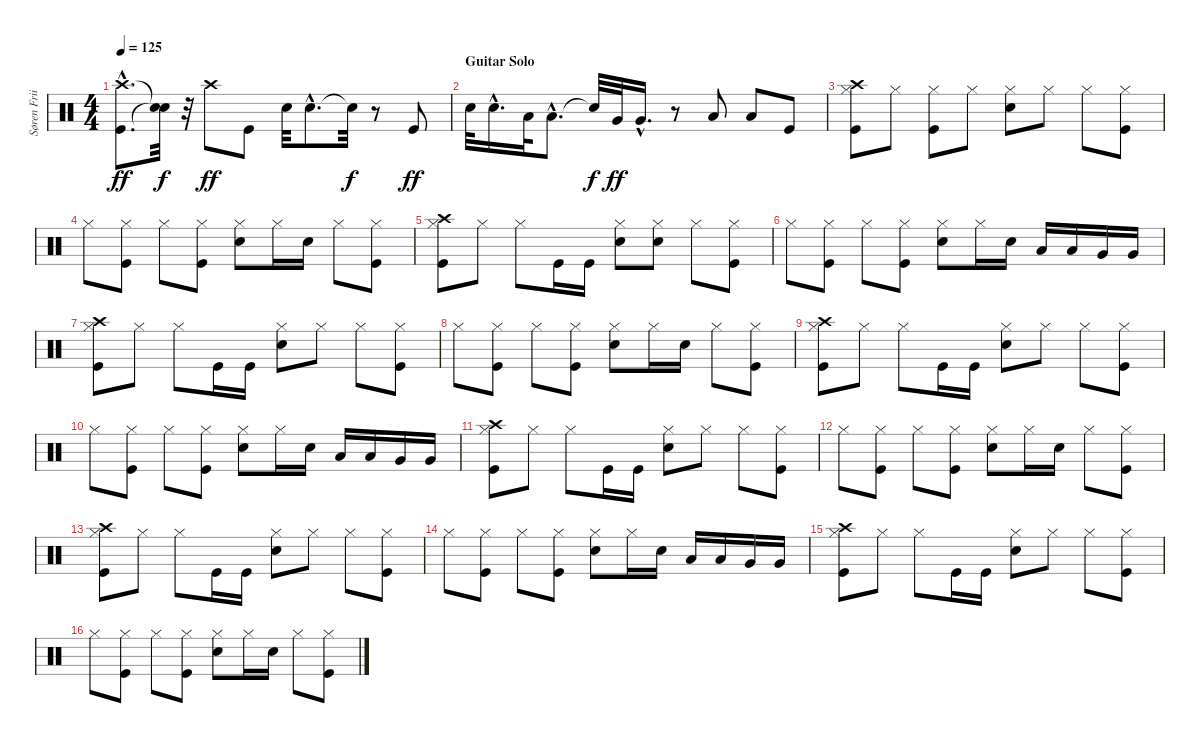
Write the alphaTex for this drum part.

\track ("Søren Friis - Drums" "Søren Frii") {instrument percussion}
\staff {score}
\articulation defaults
\ts (4 4)
\tempo 125
\clef neutral
\ks c
("Kick (hit)"{hac} "Crash high (hit)"{hac}).8{d dy ff} ("Snare (hit)"{t} "Snare (hit)"{t}).32{dy f} r.32 "Crash high (hit)".8{dy ff} "Kick (hit)".8 "Snare (hit) 2".32 "Snare (hit) 2"{hac}.8{d} "Snare (hit)"{t}.32{dy f} r.8 "Kick (hit)".8{dy ff} |
\section ("" "Guitar Solo")
"Snare (hit) 2".32 "Snare (hit) 2"{hac}.16{d} "Low Tom (hit)".32 "Low Tom (hit)"{hac}.8{d} "Snare (hit)"{t}.32{dy f} "Very Low Tom (hit)".32{dy ff} "Very Low Tom (hit)"{hac}.16{d} r.8 "Low Floor Tom (hit)".8 "Low Floor Tom (hit)".8 "Kick (hit)".8 |
("Kick (hit)" "Hi-Hat (closed)" "Crash high (hit)").8 "Hi-Hat (closed)".8 ("Kick (hit)" "Hi-Hat (closed)").8 "Hi-Hat (closed)".8 ("Snare (hit) 2" "Hi-Hat (closed)").8 "Hi-Hat (closed)".8 "Hi-Hat (closed)".8 ("Kick (hit)" "Hi-Hat (closed)").8 |
"Hi-Hat (closed)".8 ("Kick (hit)" "Hi-Hat (closed)").8 "Hi-Hat (closed)".8 ("Kick (hit)" "Hi-Hat (closed)").8 ("Snare (hit) 2" "Hi-Hat (closed)").8 "Hi-Hat (closed)".16 "Snare (hit) 2".16 "Hi-Hat (closed)".8 ("Kick (hit)" "Hi-Hat (closed)").8 |
("Kick (hit)" "Hi-Hat (closed)" "Crash high (hit)").8 "Hi-Hat (closed)".8 "Hi-Hat (closed)".8 "Kick (hit)".16 "Kick (hit)".16 ("Snare (hit) 2" "Hi-Hat (closed)").8 ("Snare (hit) 2" "Hi-Hat (closed)").8 "Hi-Hat (closed)".8 ("Kick (hit)" "Hi-Hat (closed)").8 |
"Hi-Hat (closed)".8 ("Kick (hit)" "Hi-Hat (closed)").8 "Hi-Hat (closed)".8 ("Kick (hit)" "Hi-Hat (closed)").8 ("Snare (hit) 2" "Hi-Hat (closed)").8 "Hi-Hat (closed)".16 "Snare (hit) 2".16 "Low Tom (hit)".16 "Low Tom (hit)".16 "Very Low Tom (hit)".16 "Very Low Tom (hit)".16 |
("Kick (hit)" "Hi-Hat (closed)" "Crash high (hit)").8 "Hi-Hat (closed)".8 "Hi-Hat (closed)".8 "Kick (hit)".16 "Kick (hit)".16 ("Snare (hit) 2" "Hi-Hat (closed)").8 "Hi-Hat (closed)".8 "Hi-Hat (closed)".8 ("Kick (hit)" "Hi-Hat (closed)").8 |
"Hi-Hat (closed)".8 ("Kick (hit)" "Hi-Hat (closed)").8 "Hi-Hat (closed)".8 ("Kick (hit)" "Hi-Hat (closed)").8 ("Snare (hit) 2" "Hi-Hat (closed)").8 "Hi-Hat (closed)".16 "Snare (hit) 2".16 "Hi-Hat (closed)".8 ("Kick (hit)" "Hi-Hat (closed)").8 |
("Kick (hit)" "Hi-Hat (closed)" "Crash high (hit)").8 "Hi-Hat (closed)".8 "Hi-Hat (closed)".8 "Kick (hit)".16 "Kick (hit)".16 ("Snare (hit) 2" "Hi-Hat (closed)").8 "Hi-Hat (closed)".8 "Hi-Hat (closed)".8 ("Kick (hit)" "Hi-Hat (closed)").8 |
"Hi-Hat (closed)".8 ("Kick (hit)" "Hi-Hat (closed)").8 "Hi-Hat (closed)".8 ("Kick (hit)" "Hi-Hat (closed)").8 ("Snare (hit) 2" "Hi-Hat (closed)").8 "Hi-Hat (closed)".16 "Snare (hit) 2".16 "Low Tom (hit)".16 "Low Tom (hit)".16 "Very Low Tom (hit)".16 "Very Low Tom (hit)".16 |
("Kick (hit)" "Hi-Hat (closed)" "Crash high (hit)").8 "Hi-Hat (closed)".8 "Hi-Hat (closed)".8 "Kick (hit)".16 "Kick (hit)".16 ("Snare (hit) 2" "Hi-Hat (closed)").8 "Hi-Hat (closed)".8 "Hi-Hat (closed)".8 ("Kick (hit)" "Hi-Hat (closed)").8 |
"Hi-Hat (closed)".8 ("Kick (hit)" "Hi-Hat (closed)").8 "Hi-Hat (closed)".8 ("Kick (hit)" "Hi-Hat (closed)").8 ("Snare (hit) 2" "Hi-Hat (closed)").8 "Hi-Hat (closed)".16 "Snare (hit) 2".16 "Hi-Hat (closed)".8 ("Kick (hit)" "Hi-Hat (closed)").8 |
("Kick (hit)" "Hi-Hat (closed)" "Crash high (hit)").8 "Hi-Hat (closed)".8 "Hi-Hat (closed)".8 "Kick (hit)".16 "Kick (hit)".16 ("Snare (hit) 2" "Hi-Hat (closed)").8 "Hi-Hat (closed)".8 "Hi-Hat (closed)".8 ("Kick (hit)" "Hi-Hat (closed)").8 |
"Hi-Hat (closed)".8 ("Kick (hit)" "Hi-Hat (closed)").8 "Hi-Hat (closed)".8 ("Kick (hit)" "Hi-Hat (closed)").8 ("Snare (hit) 2" "Hi-Hat (closed)").8 "Hi-Hat (closed)".16 "Snare (hit) 2".16 "Low Tom (hit)".16 "Low Tom (hit)".16 "Very Low Tom (hit)".16 "Very Low Tom (hit)".16 |
("Kick (hit)" "Hi-Hat (closed)" "Crash high (hit)").8 "Hi-Hat (closed)".8 "Hi-Hat (closed)".8 "Kick (hit)".16 "Kick (hit)".16 ("Snare (hit) 2" "Hi-Hat (closed)").8 "Hi-Hat (closed)".8 "Hi-Hat (closed)".8 ("Kick (hit)" "Hi-Hat (closed)").8 |
"Hi-Hat (closed)".8 ("Kick (hit)" "Hi-Hat (closed)").8 "Hi-Hat (closed)".8 ("Kick (hit)" "Hi-Hat (closed)").8 ("Snare (hit) 2" "Hi-Hat (closed)").8 "Hi-Hat (closed)".16 "Snare (hit) 2".16 "Hi-Hat (closed)".8 ("Kick (hit)" "Hi-Hat (closed)").8
